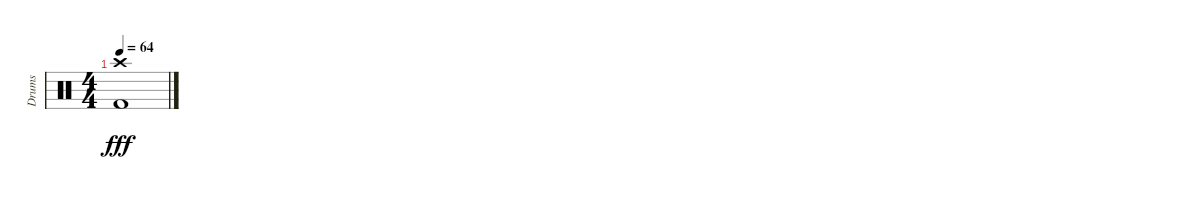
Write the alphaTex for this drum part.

\track ("Drums" "Drums") {instrument percussion}
\staff {score}
\articulation defaults
\ts (4 4)
\tempo 64
\clef neutral
\ks c
("Crash high (hit)" "Kick (hit) 2").1{dy fff}
